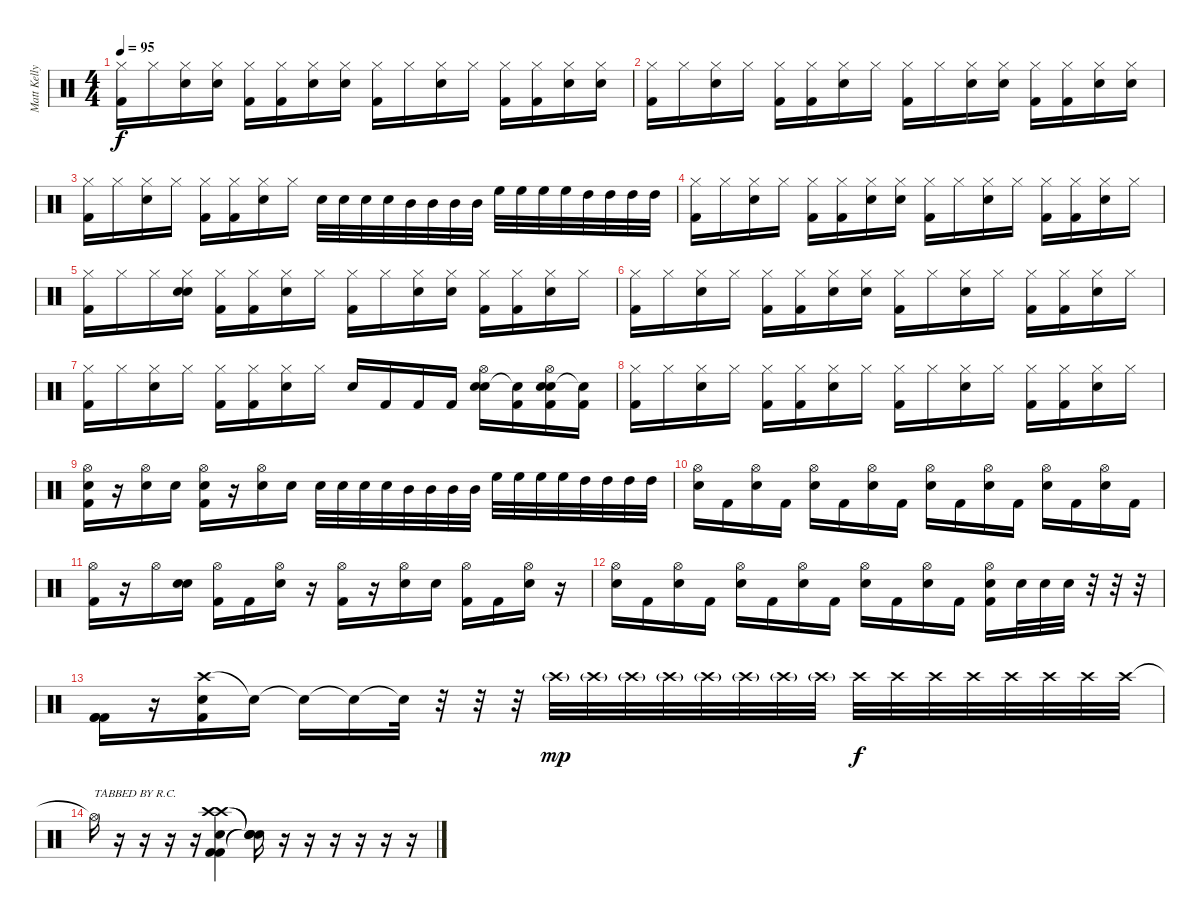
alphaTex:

\track ("Matt Kelly - Drums" "Matt Kelly") {instrument percussion}
\staff {score}
\articulation defaults
\ts (4 4)
\tempo 95
\clef neutral
\ks c
("Hi-Hat (closed)" "Kick (hit) 2").16{dy f} "Hi-Hat (closed)".16 ("Hi-Hat (closed)" "Electric Snare (hit)").16 ("Hi-Hat (closed)" "Electric Snare (hit)").16 ("Hi-Hat (closed)" "Kick (hit) 2").16 ("Hi-Hat (closed)" "Kick (hit) 2").16 ("Hi-Hat (closed)" "Electric Snare (hit)").16 ("Hi-Hat (closed)" "Electric Snare (hit)").16 ("Hi-Hat (closed)" "Kick (hit) 2").16 "Hi-Hat (closed)".16 ("Hi-Hat (closed)" "Electric Snare (hit)").16 "Hi-Hat (closed)".16 ("Hi-Hat (closed)" "Kick (hit) 2").16 ("Hi-Hat (closed)" "Kick (hit) 2").16 ("Hi-Hat (closed)" "Electric Snare (hit)").16 ("Hi-Hat (closed)" "Electric Snare (hit)").16 |
("Hi-Hat (closed)" "Kick (hit) 2").16 "Hi-Hat (closed)".16 ("Hi-Hat (closed)" "Electric Snare (hit)").16 "Hi-Hat (closed)".16 ("Hi-Hat (closed)" "Kick (hit) 2").16 ("Hi-Hat (closed)" "Kick (hit) 2").16 ("Hi-Hat (closed)" "Electric Snare (hit)").16 "Hi-Hat (closed)".16 ("Hi-Hat (closed)" "Kick (hit) 2").16 "Hi-Hat (closed)".16 ("Hi-Hat (closed)" "Electric Snare (hit)").16 ("Hi-Hat (closed)" "Electric Snare (hit)").16 ("Hi-Hat (closed)" "Kick (hit) 2").16 ("Hi-Hat (closed)" "Kick (hit) 2").16 ("Hi-Hat (closed)" "Electric Snare (hit)").16 ("Hi-Hat (closed)" "Electric Snare (hit)").16 |
("Hi-Hat (closed)" "Kick (hit) 2").16 "Hi-Hat (closed)".16 ("Hi-Hat (closed)" "Electric Snare (hit)").16 "Hi-Hat (closed)".16 ("Hi-Hat (closed)" "Kick (hit) 2").16 ("Hi-Hat (closed)" "Kick (hit) 2").16 ("Hi-Hat (closed)" "Electric Snare (hit)").16 "Hi-Hat (closed)".16 "Electric Snare (hit)".32 "Electric Snare (hit)".32 "Electric Snare (hit)".32 "Electric Snare (hit)".32 "Mid Tom (hit)".32 "Mid Tom (hit)".32 "Mid Tom (hit)".32 "Mid Tom (hit)".32 "High Floor Tom (hit)".32 "High Floor Tom (hit)".32 "High Floor Tom (hit)".32 "High Floor Tom (hit)".32 "High Tom (hit)".32 "High Tom (hit)".32 "High Tom (hit)".32 "High Tom (hit)".32 |
("Hi-Hat (closed)" "Kick (hit) 2").16 "Hi-Hat (closed)".16 ("Hi-Hat (closed)" "Electric Snare (hit)").16 "Hi-Hat (closed)".16 ("Hi-Hat (closed)" "Kick (hit) 2").16 ("Hi-Hat (closed)" "Kick (hit) 2").16 ("Hi-Hat (closed)" "Electric Snare (hit)").16 ("Hi-Hat (closed)" "Electric Snare (hit)").16 ("Hi-Hat (closed)" "Kick (hit) 2").16 "Hi-Hat (closed)".16 ("Hi-Hat (closed)" "Electric Snare (hit)").16 "Hi-Hat (closed)".16 ("Hi-Hat (closed)" "Kick (hit) 2").16 ("Hi-Hat (closed)" "Kick (hit) 2").16 ("Hi-Hat (closed)" "Electric Snare (hit)").16 "Hi-Hat (closed)".16 |
("Hi-Hat (closed)" "Kick (hit) 2").16 "Hi-Hat (closed)".16 "Hi-Hat (closed)".16 ("Hi-Hat (closed)" "Electric Snare (hit)" "Electric Snare (hit)").16 ("Hi-Hat (closed)" "Kick (hit) 2").16 ("Hi-Hat (closed)" "Kick (hit) 2").16 ("Hi-Hat (closed)" "Electric Snare (hit)").16 "Hi-Hat (closed)".16 ("Hi-Hat (closed)" "Kick (hit) 2").16 "Hi-Hat (closed)".16 ("Hi-Hat (closed)" "Electric Snare (hit)").16 ("Hi-Hat (closed)" "Electric Snare (hit)").16 ("Hi-Hat (closed)" "Kick (hit) 2").16 ("Hi-Hat (closed)" "Kick (hit) 2").16 ("Hi-Hat (closed)" "Electric Snare (hit)").16 "Hi-Hat (closed)".16 |
("Hi-Hat (closed)" "Kick (hit) 2").16 "Hi-Hat (closed)".16 ("Hi-Hat (closed)" "Electric Snare (hit)").16 "Hi-Hat (closed)".16 ("Hi-Hat (closed)" "Kick (hit) 2").16 ("Hi-Hat (closed)" "Kick (hit) 2").16 ("Hi-Hat (closed)" "Electric Snare (hit)").16 ("Hi-Hat (closed)" "Electric Snare (hit)").16 ("Hi-Hat (closed)" "Kick (hit) 2").16 "Hi-Hat (closed)".16 ("Hi-Hat (closed)" "Electric Snare (hit)").16 "Hi-Hat (closed)".16 ("Hi-Hat (closed)" "Kick (hit) 2").16 ("Hi-Hat (closed)" "Kick (hit) 2").16 ("Hi-Hat (closed)" "Electric Snare (hit)").16 "Hi-Hat (closed)".16 |
("Hi-Hat (closed)" "Kick (hit) 2").16 "Hi-Hat (closed)".16 ("Hi-Hat (closed)" "Electric Snare (hit)").16 "Hi-Hat (closed)".16 ("Hi-Hat (closed)" "Kick (hit) 2").16 ("Hi-Hat (closed)" "Kick (hit) 2").16 ("Hi-Hat (closed)" "Electric Snare (hit)").16 "Hi-Hat (closed)".16 "Electric Snare (hit)".16 "Kick (hit) 2".16 "Kick (hit) 2".16 "Kick (hit) 2".16 ("Electric Snare (hit)" "Electric Snare (hit)" "Hi-Hat (open)").16 ("Kick (hit) 2" "Snare (hit)"{t}).16 ("Electric Snare (hit)" "Electric Snare (hit)" "Kick (hit) 2" "Hi-Hat (open)").16 ("Kick (hit) 2" "Snare (hit)"{t}).16 |
("Hi-Hat (closed)" "Kick (hit) 2").16 "Hi-Hat (closed)".16 ("Hi-Hat (closed)" "Electric Snare (hit)").16 "Hi-Hat (closed)".16 ("Hi-Hat (closed)" "Kick (hit) 2").16 ("Hi-Hat (closed)" "Kick (hit) 2").16 ("Hi-Hat (closed)" "Electric Snare (hit)").16 "Hi-Hat (closed)".16 ("Hi-Hat (closed)" "Kick (hit) 2").16 "Hi-Hat (closed)".16 ("Hi-Hat (closed)" "Electric Snare (hit)").16 "Hi-Hat (closed)".16 ("Hi-Hat (closed)" "Kick (hit) 2").16 ("Hi-Hat (closed)" "Kick (hit) 2").16 ("Hi-Hat (closed)" "Electric Snare (hit)").16 "Hi-Hat (closed)".16 |
("Hi-Hat (open)" "Electric Snare (hit)" "Kick (hit) 2").16 r.16 ("Hi-Hat (open)" "Electric Snare (hit)").16 "Electric Snare (hit)".16 ("Hi-Hat (open)" "Electric Snare (hit)" "Kick (hit) 2").16 r.16 ("Hi-Hat (open)" "Electric Snare (hit)").16 "Electric Snare (hit)".16 "Electric Snare (hit)".32 "Electric Snare (hit)".32 "Electric Snare (hit)".32 "Electric Snare (hit)".32 "Mid Tom (hit)".32 "Mid Tom (hit)".32 "Mid Tom (hit)".32 "Mid Tom (hit)".32 "High Floor Tom (hit)".32 "High Floor Tom (hit)".32 "High Floor Tom (hit)".32 "High Floor Tom (hit)".32 "High Tom (hit)".32 "High Tom (hit)".32 "High Tom (hit)".32 "High Tom (hit)".32 |
("Hi-Hat (open)" "Electric Snare (hit)").16 "Kick (hit) 2".16 ("Hi-Hat (open)" "Electric Snare (hit)").16 "Kick (hit) 2".16 ("Hi-Hat (open)" "Electric Snare (hit)").16 "Kick (hit) 2".16 ("Hi-Hat (open)" "Electric Snare (hit)").16 "Kick (hit) 2".16 ("Hi-Hat (open)" "Electric Snare (hit)").16 "Kick (hit) 2".16 ("Hi-Hat (open)" "Electric Snare (hit)").16 "Kick (hit) 2".16 ("Hi-Hat (open)" "Electric Snare (hit)").16 "Kick (hit) 2".16 ("Hi-Hat (open)" "Electric Snare (hit)").16 "Kick (hit) 2".16 |
("Hi-Hat (open)" "Kick (hit) 2").16 r.16 "Hi-Hat (open)".16 ("Electric Snare (hit)" "Electric Snare (hit)").16 ("Hi-Hat (open)" "Kick (hit) 2").16 "Kick (hit) 2".16 ("Hi-Hat (open)" "Electric Snare (hit)").16 r.16 ("Hi-Hat (open)" "Kick (hit) 2").16 r.16 ("Hi-Hat (open)" "Electric Snare (hit)").16 "Electric Snare (hit)".16 ("Hi-Hat (open)" "Kick (hit) 2").16 "Kick (hit) 2".16 ("Hi-Hat (open)" "Electric Snare (hit)").16 r.16 |
("Hi-Hat (open)" "Electric Snare (hit)").16 "Kick (hit) 2".16 ("Hi-Hat (open)" "Electric Snare (hit)").16 "Kick (hit) 2".16 ("Hi-Hat (open)" "Electric Snare (hit)").16 "Kick (hit) 2".16 ("Hi-Hat (open)" "Electric Snare (hit)").16 "Kick (hit) 2".16 ("Hi-Hat (open)" "Electric Snare (hit)").16 "Kick (hit) 2".16 ("Hi-Hat (open)" "Electric Snare (hit)").16 "Kick (hit) 2".16 ("Hi-Hat (open)" "Electric Snare (hit)" "Kick (hit) 2").16 "Electric Snare (hit)".32 "Electric Snare (hit)".32 "Electric Snare (hit)".32 r.32 r.32 r.32 |
("Kick (hit) 2" "Kick (hit) 2" "Kick (hit) 2").16 r.16 ("Crash high (hit)" "Electric Snare (hit)" "Kick (hit) 2").16 "Snare (hit)"{t}.16 "Electric Snare (hit)"{t}.16 "Snare (hit)"{t}.16 "Snare (hit)"{t}.32 r.32 r.32 r.32 "Crash high (hit)"{g}.32{dy mp} "Crash high (hit)"{g}.32 "Crash high (hit)"{g}.32 "Crash high (hit)"{g}.32 "Crash high (hit)"{g}.32 "Crash high (hit)"{g}.32 "Crash high (hit)"{g}.32 "Crash high (hit)"{g}.32 "Crash high (hit)".32{dy f} "Crash high (hit)".32 "Crash high (hit)".32 "Crash high (hit)".32 "Crash high (hit)".32 "Crash high (hit)".32 "Crash high (hit)".32 "Crash high (hit)".32 |
"Hi-Hat (open)"{t}.16{txt "TABBED BY R.C."} r.16 r.16 r.16 r.16 ("Crash high (hit)" "Crash high (hit)" "Kick (hit) 2" "Kick (hit) 2" "Snare (hit) 2").4 ("Snare (hit)"{t} "Snare (hit)"{t} "Snare (hit)"{t} "Snare (hit)"{t}).16 r.16 r.16 r.16 r.16 r.16 r.16
